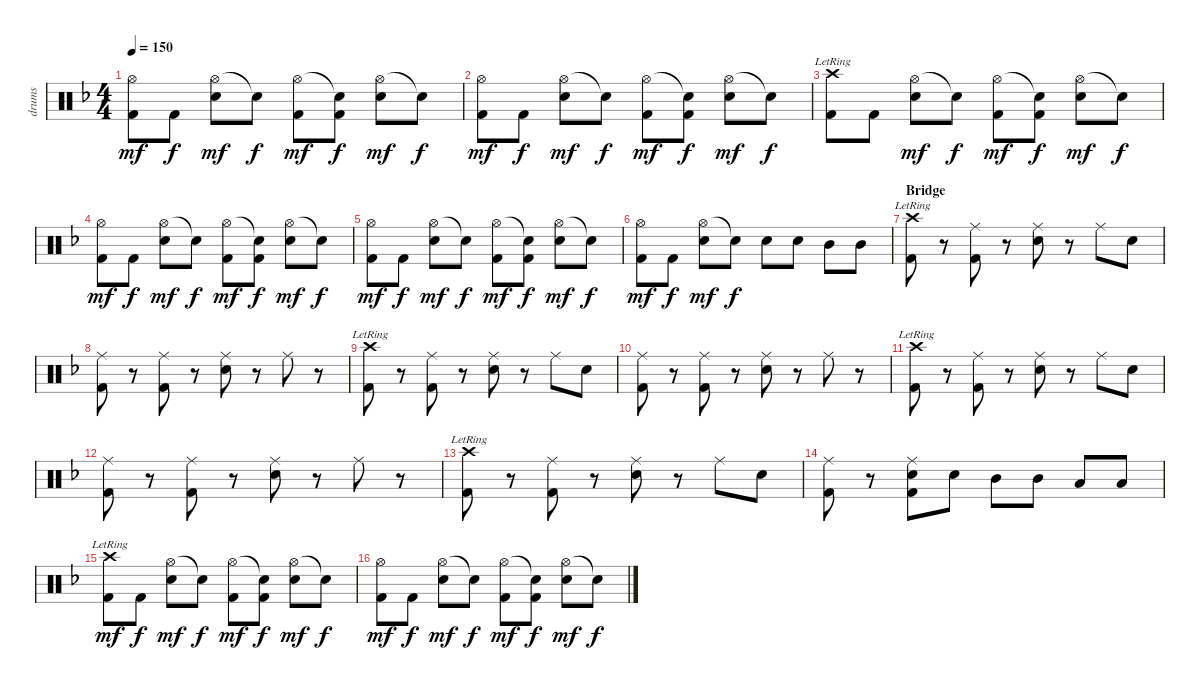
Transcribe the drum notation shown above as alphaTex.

\track ("drums" "drums") {instrument percussion}
\staff {score}
\articulation defaults
\ts (4 4)
\tempo 150
\clef neutral
\ks dminor
("Hi-Hat (open)" "Kick (hit) 2").8{dy mf} "Kick (hit) 2".8{dy f} ("Hi-Hat (open)" "Electric Snare (hit)").8{dy mf} "Snare (hit)"{t}.8{dy f} ("Hi-Hat (open)" "Kick (hit) 2").8{dy mf} ("Snare (hit)"{t} "Kick (hit) 2").8{dy f} ("Hi-Hat (open)" "Electric Snare (hit)").8{dy mf} "Snare (hit)"{t}.8{dy f} |
("Hi-Hat (open)" "Kick (hit) 2").8{dy mf} "Kick (hit) 2".8{dy f} ("Hi-Hat (open)" "Electric Snare (hit)").8{dy mf} "Snare (hit)"{t}.8{dy f} ("Hi-Hat (open)" "Kick (hit) 2").8{dy mf} ("Snare (hit)"{t} "Kick (hit) 2").8{dy f} ("Hi-Hat (open)" "Electric Snare (hit)").8{dy mf} "Snare (hit)"{t}.8{dy f} |
("Crash high (hit)"{lr} "Kick (hit) 2").8 "Kick (hit) 2".8 ("Hi-Hat (open)" "Electric Snare (hit)").8{dy mf} "Snare (hit)"{t}.8{dy f} ("Hi-Hat (open)" "Kick (hit) 2").8{dy mf} ("Snare (hit)"{t} "Kick (hit) 2").8{dy f} ("Hi-Hat (open)" "Electric Snare (hit)").8{dy mf} "Snare (hit)"{t}.8{dy f} |
("Hi-Hat (open)" "Kick (hit) 2").8{dy mf} "Kick (hit) 2".8{dy f} ("Hi-Hat (open)" "Electric Snare (hit)").8{dy mf} "Snare (hit)"{t}.8{dy f} ("Hi-Hat (open)" "Kick (hit) 2").8{dy mf} ("Snare (hit)"{t} "Kick (hit) 2").8{dy f} ("Hi-Hat (open)" "Electric Snare (hit)").8{dy mf} "Snare (hit)"{t}.8{dy f} |
("Hi-Hat (open)" "Kick (hit) 2").8{dy mf} "Kick (hit) 2".8{dy f} ("Hi-Hat (open)" "Electric Snare (hit)").8{dy mf} "Snare (hit)"{t}.8{dy f} ("Hi-Hat (open)" "Kick (hit) 2").8{dy mf} ("Snare (hit)"{t} "Kick (hit) 2").8{dy f} ("Hi-Hat (open)" "Electric Snare (hit)").8{dy mf} "Snare (hit)"{t}.8{dy f} |
("Hi-Hat (open)" "Kick (hit) 2").8{dy mf} "Kick (hit) 2".8{dy f} ("Hi-Hat (open)" "Electric Snare (hit)").8{dy mf} "Snare (hit)"{t}.8{dy f} "Electric Snare (hit)".8 "Electric Snare (hit)".8 "Mid Tom (hit)".8 "Mid Tom (hit)".8 |
\section ("" "Bridge")
("Crash high (hit)"{lr} "Kick (hit) 2").8 r.8 ("Ride (middle)" "Kick (hit) 2").8 r.8 ("Ride (middle)" "Electric Snare (hit)").8 r.8 "Ride (middle)".8 "Electric Snare (hit)".8 |
("Ride (middle)" "Kick (hit) 2").8 r.8 ("Ride (middle)" "Kick (hit) 2").8 r.8 ("Ride (middle)" "Electric Snare (hit)").8 r.8 "Ride (middle)".8 r.8 |
("Crash high (hit)"{lr} "Kick (hit) 2").8 r.8 ("Ride (middle)" "Kick (hit) 2").8 r.8 ("Ride (middle)" "Electric Snare (hit)").8 r.8 "Ride (middle)".8 "Electric Snare (hit)".8 |
("Ride (middle)" "Kick (hit) 2").8 r.8 ("Ride (middle)" "Kick (hit) 2").8 r.8 ("Ride (middle)" "Electric Snare (hit)").8 r.8 "Ride (middle)".8 r.8 |
("Crash high (hit)"{lr} "Kick (hit) 2").8 r.8 ("Ride (middle)" "Kick (hit) 2").8 r.8 ("Ride (middle)" "Electric Snare (hit)").8 r.8 "Ride (middle)".8 "Electric Snare (hit)".8 |
("Ride (middle)" "Kick (hit) 2").8 r.8 ("Ride (middle)" "Kick (hit) 2").8 r.8 ("Ride (middle)" "Electric Snare (hit)").8 r.8 "Ride (middle)".8 r.8 |
("Crash high (hit)"{lr} "Kick (hit) 2").8 r.8 ("Ride (middle)" "Kick (hit) 2").8 r.8 ("Ride (middle)" "Electric Snare (hit)").8 r.8 "Ride (middle)".8 "Electric Snare (hit)".8 |
("Ride (middle)" "Kick (hit) 2").8 r.8 ("Ride (middle)" "Electric Snare (hit)" "Kick (hit) 2").8 "Electric Snare (hit)".8 "Mid Tom (hit)".8 "Mid Tom (hit)".8 "Low Tom (hit)".8 "Low Tom (hit)".8 |
("Crash high (hit)"{lr} "Kick (hit) 2").8{dy mf} "Kick (hit) 2".8{dy f} ("Hi-Hat (open)" "Electric Snare (hit)").8{dy mf} "Snare (hit)"{t}.8{dy f} ("Hi-Hat (open)" "Kick (hit) 2").8{dy mf} ("Snare (hit)"{t} "Kick (hit) 2").8{dy f} ("Hi-Hat (open)" "Electric Snare (hit)").8{dy mf} "Snare (hit)"{t}.8{dy f} |
("Hi-Hat (open)" "Kick (hit) 2").8{dy mf} "Kick (hit) 2".8{dy f} ("Hi-Hat (open)" "Electric Snare (hit)").8{dy mf} "Snare (hit)"{t}.8{dy f} ("Hi-Hat (open)" "Kick (hit) 2").8{dy mf} ("Snare (hit)"{t} "Kick (hit) 2").8{dy f} ("Hi-Hat (open)" "Electric Snare (hit)").8{dy mf} "Snare (hit)"{t}.8{dy f}
